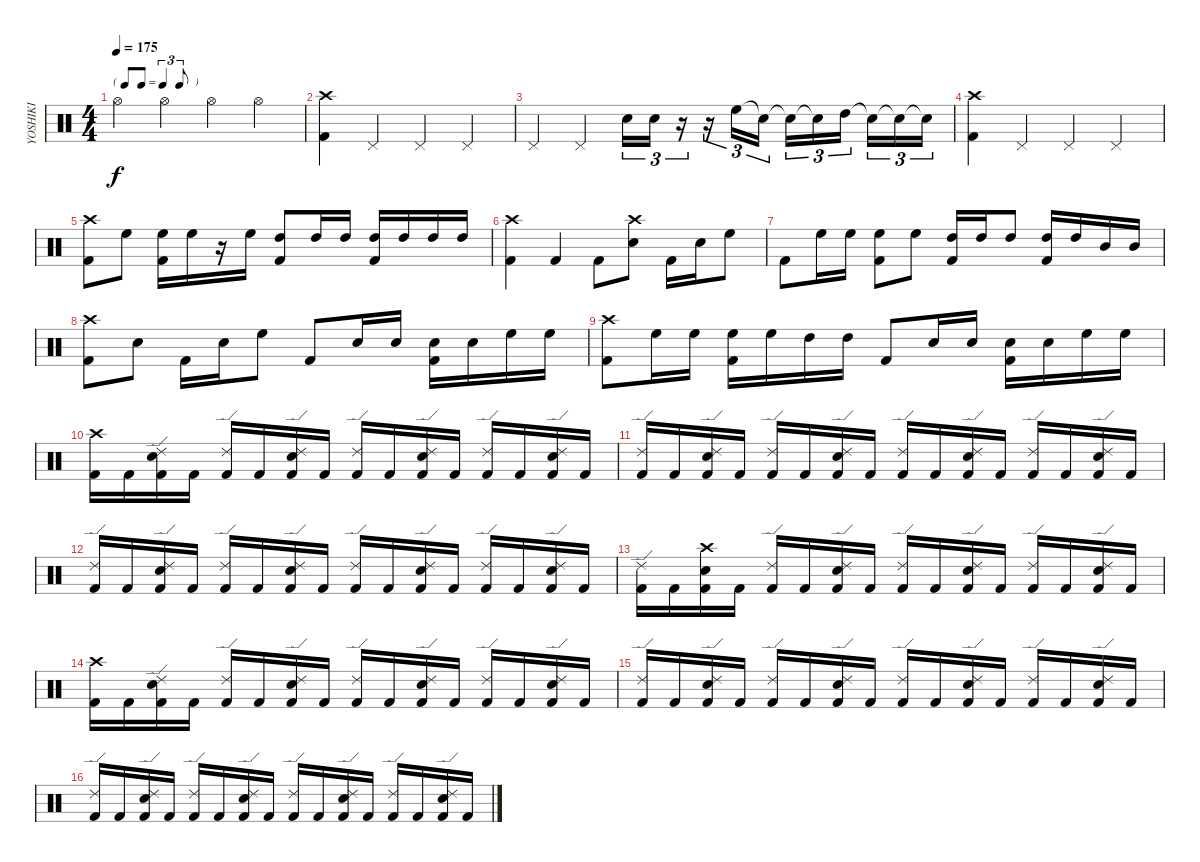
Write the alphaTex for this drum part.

\track ("YOSHIKI" "YOSHIKI") {instrument percussion}
\staff {score}
\articulation defaults
\ts (4 4)
\tf triplet8th
\tempo 175
\clef neutral
\ks c "Hi-Hat (open)".4{dy f} "Hi-Hat (open)".4 "Hi-Hat (open)".4 "Hi-Hat (open)".4
|
("Crash high (hit)" "Kick (hit) 2").4 "Pedal Hi-Hat (hit)".4 "Pedal Hi-Hat (hit)".4 "Pedal Hi-Hat (hit)".4 |
"Pedal Hi-Hat (hit)".4 "Pedal Hi-Hat (hit)".4 "Snare (hit) 2".16{tu (3 2)} "Snare (hit) 2".16{tu (3 2)} r.16{tu (3 2)} r.16{tu (3 2)} "High Floor Tom (hit)".16{tu (3 2)} "Snare (hit)"{t}.16{tu (3 2)} "Snare (hit)"{t}.16{tu (3 2)} "Snare (hit)"{t}.16{tu (3 2)} "High Tom (hit)".16{tu (3 2)} "Snare (hit)"{t}.16{tu (3 2)} "Snare (hit)"{t}.16{tu (3 2)} "Snare (hit)"{t}.16{tu (3 2)} |
("Crash high (hit)" "Kick (hit) 2").4 "Pedal Hi-Hat (hit)".4 "Pedal Hi-Hat (hit)".4 "Pedal Hi-Hat (hit)".4 |
("Crash high (hit)" "Kick (hit) 2").8 "High Floor Tom (hit)".8 ("High Floor Tom (hit)" "Kick (hit) 2").16 "High Floor Tom (hit)".16 r.16 "High Floor Tom (hit)".16 ("High Tom (hit)" "Kick (hit) 2").8 "High Tom (hit)".16 "High Tom (hit)".16 ("High Tom (hit)" "Kick (hit) 2").16 "High Tom (hit)".16 "High Tom (hit)".16 "High Tom (hit)".16 |
("Crash high (hit)" "Kick (hit) 2").4 "Kick (hit) 2".4 "Kick (hit) 2".8 ("Crash high (hit)" "Snare (hit) 2").8 "Kick (hit) 2".16 "Snare (hit) 2".16 "High Floor Tom (hit)".8 |
"Kick (hit) 2".8 "High Floor Tom (hit)".16 "High Floor Tom (hit)".16 ("High Floor Tom (hit)" "Kick (hit) 2").8 "High Floor Tom (hit)".8 ("High Tom (hit)" "Kick (hit) 2").16 "High Tom (hit)".16 "High Tom (hit)".8 ("High Tom (hit)" "Kick (hit) 2").16 "High Tom (hit)".16 "Mid Tom (hit)".16 "Mid Tom (hit)".16 |
("Crash high (hit)" "Kick (hit) 2").8 "Snare (hit) 2".8 "Kick (hit) 2".16 "Snare (hit) 2".16 "High Floor Tom (hit)".8 "Kick (hit) 2".8 "Snare (hit) 2".16 "Snare (hit) 2".16 ("Snare (hit) 2" "Kick (hit) 2").16 "Snare (hit) 2".16 "High Floor Tom (hit)".16 "High Floor Tom (hit)".16 |
("Crash high (hit)" "Kick (hit) 2").8 "High Floor Tom (hit)".16 "High Floor Tom (hit)".16 ("High Floor Tom (hit)" "Kick (hit) 2").16 "High Floor Tom (hit)".16 "High Tom (hit)".16 "High Tom (hit)".16 "Kick (hit) 2".8 "Snare (hit) 2".16 "Snare (hit) 2".16 ("Snare (hit) 2" "Kick (hit) 2").16 "Snare (hit) 2".16 "High Floor Tom (hit)".16 "High Floor Tom (hit)".16 |
("Crash high (hit)" "Kick (hit) 2").16 "Kick (hit) 2".16 ("Ride (edge) 2" "Snare (hit) 2" "Kick (hit) 2").16 "Kick (hit) 2".16 ("Ride (edge) 2" "Kick (hit) 2").16 "Kick (hit) 2".16 ("Ride (edge) 2" "Snare (hit) 2" "Kick (hit) 2").16 "Kick (hit) 2".16 ("Ride (edge) 2" "Kick (hit) 2").16 "Kick (hit) 2".16 ("Ride (edge) 2" "Snare (hit) 2" "Kick (hit) 2").16 "Kick (hit) 2".16 ("Ride (edge) 2" "Kick (hit) 2").16 "Kick (hit) 2".16 ("Ride (edge) 2" "Snare (hit) 2" "Kick (hit) 2").16 "Kick (hit) 2".16 |
("Ride (edge) 2" "Kick (hit) 2").16 "Kick (hit) 2".16 ("Ride (edge) 2" "Snare (hit) 2" "Kick (hit) 2").16 "Kick (hit) 2".16 ("Ride (edge) 2" "Kick (hit) 2").16 "Kick (hit) 2".16 ("Ride (edge) 2" "Snare (hit) 2" "Kick (hit) 2").16 "Kick (hit) 2".16 ("Ride (edge) 2" "Kick (hit) 2").16 "Kick (hit) 2".16 ("Ride (edge) 2" "Snare (hit) 2" "Kick (hit) 2").16 "Kick (hit) 2".16 ("Ride (edge) 2" "Kick (hit) 2").16 "Kick (hit) 2".16 ("Ride (edge) 2" "Snare (hit) 2" "Kick (hit) 2").16 "Kick (hit) 2".16 |
("Ride (edge) 2" "Kick (hit) 2").16 "Kick (hit) 2".16 ("Ride (edge) 2" "Snare (hit) 2" "Kick (hit) 2").16 "Kick (hit) 2".16 ("Ride (edge) 2" "Kick (hit) 2").16 "Kick (hit) 2".16 ("Ride (edge) 2" "Snare (hit) 2" "Kick (hit) 2").16 "Kick (hit) 2".16 ("Ride (edge) 2" "Kick (hit) 2").16 "Kick (hit) 2".16 ("Ride (edge) 2" "Snare (hit) 2" "Kick (hit) 2").16 "Kick (hit) 2".16 ("Ride (edge) 2" "Kick (hit) 2").16 "Kick (hit) 2".16 ("Ride (edge) 2" "Snare (hit) 2" "Kick (hit) 2").16 "Kick (hit) 2".16 |
("Ride (edge) 2" "Kick (hit) 2").16 "Kick (hit) 2".16 ("Crash high (hit)" "Snare (hit) 2" "Kick (hit) 2").16 "Kick (hit) 2".16 ("Ride (edge) 2" "Kick (hit) 2").16 "Kick (hit) 2".16 ("Ride (edge) 2" "Snare (hit) 2" "Kick (hit) 2").16 "Kick (hit) 2".16 ("Ride (edge) 2" "Kick (hit) 2").16 "Kick (hit) 2".16 ("Ride (edge) 2" "Snare (hit) 2" "Kick (hit) 2").16 "Kick (hit) 2".16 ("Ride (edge) 2" "Kick (hit) 2").16 "Kick (hit) 2".16 ("Ride (edge) 2" "Snare (hit) 2" "Kick (hit) 2").16 "Kick (hit) 2".16 |
("Crash high (hit)" "Kick (hit) 2").16 "Kick (hit) 2".16 ("Ride (edge) 2" "Snare (hit) 2" "Kick (hit) 2").16 "Kick (hit) 2".16 ("Ride (edge) 2" "Kick (hit) 2").16 "Kick (hit) 2".16 ("Ride (edge) 2" "Snare (hit) 2" "Kick (hit) 2").16 "Kick (hit) 2".16 ("Ride (edge) 2" "Kick (hit) 2").16 "Kick (hit) 2".16 ("Ride (edge) 2" "Snare (hit) 2" "Kick (hit) 2").16 "Kick (hit) 2".16 ("Ride (edge) 2" "Kick (hit) 2").16 "Kick (hit) 2".16 ("Ride (edge) 2" "Snare (hit) 2" "Kick (hit) 2").16 "Kick (hit) 2".16 |
("Ride (edge) 2" "Kick (hit) 2").16 "Kick (hit) 2".16 ("Ride (edge) 2" "Snare (hit) 2" "Kick (hit) 2").16 "Kick (hit) 2".16 ("Ride (edge) 2" "Kick (hit) 2").16 "Kick (hit) 2".16 ("Ride (edge) 2" "Snare (hit) 2" "Kick (hit) 2").16 "Kick (hit) 2".16 ("Ride (edge) 2" "Kick (hit) 2").16 "Kick (hit) 2".16 ("Ride (edge) 2" "Snare (hit) 2" "Kick (hit) 2").16 "Kick (hit) 2".16 ("Ride (edge) 2" "Kick (hit) 2").16 "Kick (hit) 2".16 ("Ride (edge) 2" "Snare (hit) 2" "Kick (hit) 2").16 "Kick (hit) 2".16 |
("Ride (edge) 2" "Kick (hit) 2").16 "Kick (hit) 2".16 ("Ride (edge) 2" "Snare (hit) 2" "Kick (hit) 2").16 "Kick (hit) 2".16 ("Ride (edge) 2" "Kick (hit) 2").16 "Kick (hit) 2".16 ("Ride (edge) 2" "Snare (hit) 2" "Kick (hit) 2").16 "Kick (hit) 2".16 ("Ride (edge) 2" "Kick (hit) 2").16 "Kick (hit) 2".16 ("Ride (edge) 2" "Snare (hit) 2" "Kick (hit) 2").16 "Kick (hit) 2".16 ("Ride (edge) 2" "Kick (hit) 2").16 "Kick (hit) 2".16 ("Ride (edge) 2" "Snare (hit) 2" "Kick (hit) 2").16 "Kick (hit) 2".16
